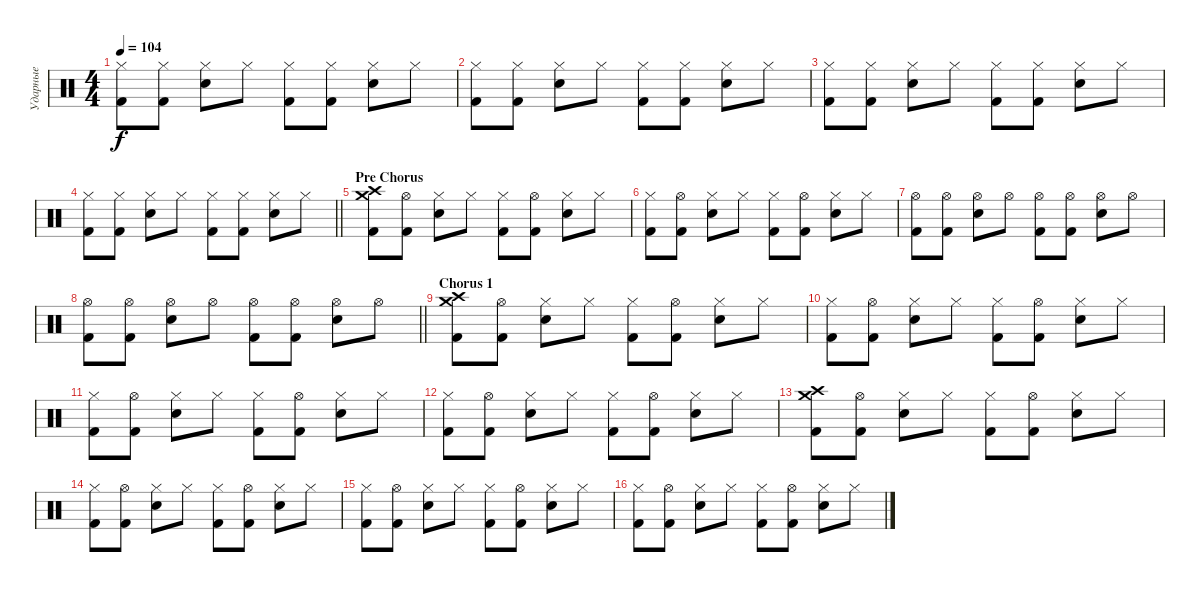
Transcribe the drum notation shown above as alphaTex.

\track ("Ударные" "Ударные") {instrument percussion}
\staff {score}
\articulation defaults
\ts (4 4)
\tempo 104
\clef neutral
\ks c
("Hi-Hat (closed)" "Kick (hit) 2").8{dy f} ("Hi-Hat (closed)" "Kick (hit) 2").8 ("Hi-Hat (closed)" "Electric Snare (hit)").8 "Hi-Hat (closed)".8 ("Hi-Hat (closed)" "Kick (hit) 2").8 ("Hi-Hat (closed)" "Kick (hit) 2").8 ("Hi-Hat (closed)" "Electric Snare (hit)").8 "Hi-Hat (closed)".8 |
("Hi-Hat (closed)" "Kick (hit) 2").8 ("Hi-Hat (closed)" "Kick (hit) 2").8 ("Hi-Hat (closed)" "Electric Snare (hit)").8 "Hi-Hat (closed)".8 ("Hi-Hat (closed)" "Kick (hit) 2").8 ("Hi-Hat (closed)" "Kick (hit) 2").8 ("Hi-Hat (closed)" "Electric Snare (hit)").8 "Hi-Hat (closed)".8 |
("Hi-Hat (closed)" "Kick (hit) 2").8 ("Hi-Hat (closed)" "Kick (hit) 2").8 ("Hi-Hat (closed)" "Electric Snare (hit)").8 "Hi-Hat (closed)".8 ("Hi-Hat (closed)" "Kick (hit) 2").8 ("Hi-Hat (closed)" "Kick (hit) 2").8 ("Hi-Hat (closed)" "Electric Snare (hit)").8 "Hi-Hat (closed)".8 |
\barLineRight lightlight
("Hi-Hat (closed)" "Kick (hit) 2").8 ("Hi-Hat (closed)" "Kick (hit) 2").8 ("Hi-Hat (closed)" "Electric Snare (hit)").8 "Hi-Hat (closed)".8 ("Hi-Hat (closed)" "Kick (hit) 2").8 ("Hi-Hat (closed)" "Kick (hit) 2").8 ("Hi-Hat (closed)" "Electric Snare (hit)").8 "Hi-Hat (closed)".8 |
\section ("" "Pre Chorus")
("Crash high (hit)" "Crash medium (hit)" "Kick (hit) 2").8 ("Hi-Hat (open)" "Kick (hit) 2").8 ("Hi-Hat (closed)" "Electric Snare (hit)").8 "Hi-Hat (closed)".8 ("Hi-Hat (closed)" "Kick (hit) 2").8 ("Hi-Hat (open)" "Kick (hit) 2").8 ("Hi-Hat (closed)" "Electric Snare (hit)").8 "Hi-Hat (closed)".8 |
("Hi-Hat (closed)" "Kick (hit) 2").8 ("Hi-Hat (open)" "Kick (hit) 2").8 ("Hi-Hat (closed)" "Electric Snare (hit)").8 "Hi-Hat (closed)".8 ("Hi-Hat (closed)" "Kick (hit) 2").8 ("Hi-Hat (open)" "Kick (hit) 2").8 ("Hi-Hat (closed)" "Electric Snare (hit)").8 "Hi-Hat (closed)".8 |
("Hi-Hat (open)" "Kick (hit) 2").8 ("Hi-Hat (open)" "Kick (hit) 2").8 ("Hi-Hat (open)" "Electric Snare (hit)").8 "Hi-Hat (open)".8 ("Hi-Hat (open)" "Kick (hit) 2").8 ("Hi-Hat (open)" "Kick (hit) 2").8 ("Hi-Hat (open)" "Electric Snare (hit)").8 "Hi-Hat (open)".8 |
\barLineRight lightlight
("Hi-Hat (open)" "Kick (hit) 2").8 ("Hi-Hat (open)" "Kick (hit) 2").8 ("Hi-Hat (open)" "Electric Snare (hit)").8 "Hi-Hat (open)".8 ("Hi-Hat (open)" "Kick (hit) 2").8 ("Hi-Hat (open)" "Kick (hit) 2").8 ("Hi-Hat (open)" "Electric Snare (hit)").8 "Hi-Hat (open)".8 |
\section ("" "Chorus 1")
("Crash high (hit)" "Crash medium (hit)" "Kick (hit) 2").8 ("Hi-Hat (open)" "Kick (hit) 2").8 ("Hi-Hat (closed)" "Electric Snare (hit)").8 "Hi-Hat (closed)".8 ("Hi-Hat (closed)" "Kick (hit) 2").8 ("Hi-Hat (open)" "Kick (hit) 2").8 ("Hi-Hat (closed)" "Electric Snare (hit)").8 "Hi-Hat (closed)".8 |
("Hi-Hat (closed)" "Kick (hit) 2").8 ("Hi-Hat (open)" "Kick (hit) 2").8 ("Hi-Hat (closed)" "Electric Snare (hit)").8 "Hi-Hat (closed)".8 ("Hi-Hat (closed)" "Kick (hit) 2").8 ("Hi-Hat (open)" "Kick (hit) 2").8 ("Hi-Hat (closed)" "Electric Snare (hit)").8 "Hi-Hat (closed)".8 |
("Hi-Hat (closed)" "Kick (hit) 2").8 ("Hi-Hat (open)" "Kick (hit) 2").8 ("Hi-Hat (closed)" "Electric Snare (hit)").8 "Hi-Hat (closed)".8 ("Hi-Hat (closed)" "Kick (hit) 2").8 ("Hi-Hat (open)" "Kick (hit) 2").8 ("Hi-Hat (closed)" "Electric Snare (hit)").8 "Hi-Hat (closed)".8 |
("Hi-Hat (closed)" "Kick (hit) 2").8 ("Hi-Hat (open)" "Kick (hit) 2").8 ("Hi-Hat (closed)" "Electric Snare (hit)").8 "Hi-Hat (closed)".8 ("Hi-Hat (closed)" "Kick (hit) 2").8 ("Hi-Hat (open)" "Kick (hit) 2").8 ("Hi-Hat (closed)" "Electric Snare (hit)").8 "Hi-Hat (closed)".8 |
("Crash high (hit)" "Crash medium (hit)" "Kick (hit) 2").8 ("Hi-Hat (open)" "Kick (hit) 2").8 ("Hi-Hat (closed)" "Electric Snare (hit)").8 "Hi-Hat (closed)".8 ("Hi-Hat (closed)" "Kick (hit) 2").8 ("Hi-Hat (open)" "Kick (hit) 2").8 ("Hi-Hat (closed)" "Electric Snare (hit)").8 "Hi-Hat (closed)".8 |
("Hi-Hat (closed)" "Kick (hit) 2").8 ("Hi-Hat (open)" "Kick (hit) 2").8 ("Hi-Hat (closed)" "Electric Snare (hit)").8 "Hi-Hat (closed)".8 ("Hi-Hat (closed)" "Kick (hit) 2").8 ("Hi-Hat (open)" "Kick (hit) 2").8 ("Hi-Hat (closed)" "Electric Snare (hit)").8 "Hi-Hat (closed)".8 |
("Hi-Hat (closed)" "Kick (hit) 2").8 ("Hi-Hat (open)" "Kick (hit) 2").8 ("Hi-Hat (closed)" "Electric Snare (hit)").8 "Hi-Hat (closed)".8 ("Hi-Hat (closed)" "Kick (hit) 2").8 ("Hi-Hat (open)" "Kick (hit) 2").8 ("Hi-Hat (closed)" "Electric Snare (hit)").8 "Hi-Hat (closed)".8 |
("Hi-Hat (closed)" "Kick (hit) 2").8 ("Hi-Hat (open)" "Kick (hit) 2").8 ("Hi-Hat (closed)" "Electric Snare (hit)").8 "Hi-Hat (closed)".8 ("Hi-Hat (closed)" "Kick (hit) 2").8 ("Hi-Hat (open)" "Kick (hit) 2").8 ("Hi-Hat (closed)" "Electric Snare (hit)").8 "Hi-Hat (closed)".8
